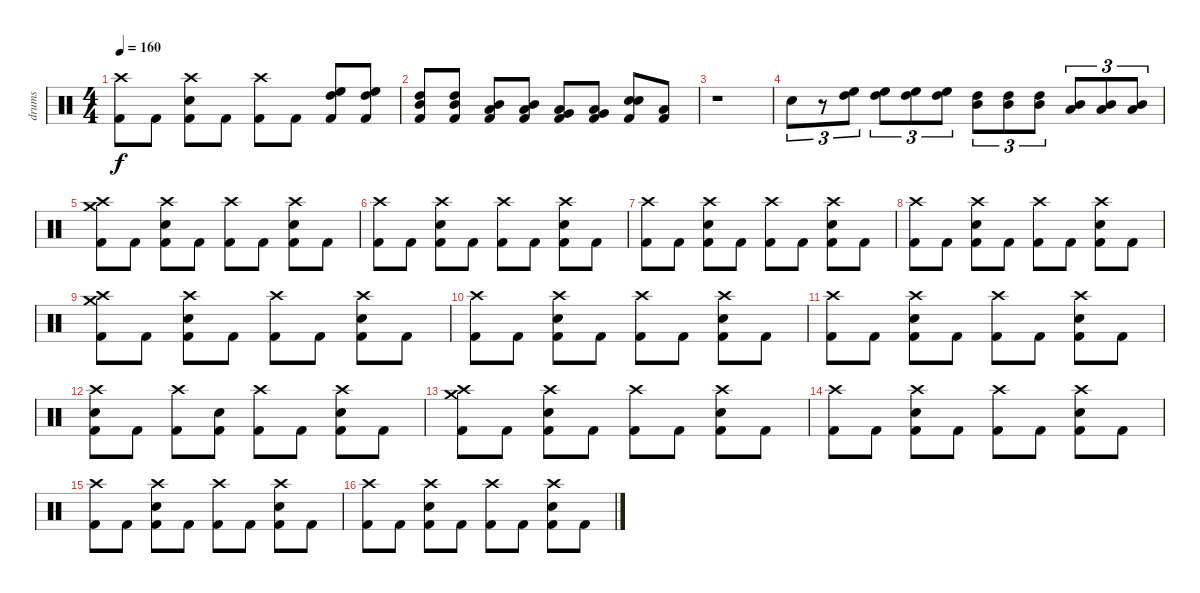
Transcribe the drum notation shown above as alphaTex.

\track ("drums" "drums") {instrument percussion}
\staff {score}
\articulation defaults
\ts (4 4)
\tempo 160
\clef neutral
\ks c
("Crash high (hit)" "Kick (hit) 2").8{dy f} "Kick (hit) 2".8 ("Crash high (hit)" "Electric Snare (hit)" "Kick (hit) 2").8 "Kick (hit) 2".8 ("Crash high (hit)" "Kick (hit) 2").8 "Kick (hit) 2".8 ("High Floor Tom (hit)" "High Tom (hit)" "Kick (hit) 2").8 ("High Floor Tom (hit)" "High Tom (hit)" "Kick (hit) 2").8 |
("High Tom (hit)" "Mid Tom (hit)" "Kick (hit) 2").8 ("High Tom (hit)" "Mid Tom (hit)" "Kick (hit) 2").8 ("Mid Tom (hit)" "Low Tom (hit)" "Kick (hit) 2").8 ("Mid Tom (hit)" "Low Tom (hit)" "Kick (hit) 2").8 ("Low Tom (hit)" "Very Low Tom (hit)" "Kick (hit) 2").8 ("Low Tom (hit)" "Very Low Tom (hit)" "Kick (hit) 2").8 ("Electric Snare (hit)" "Electric Snare (hit)" "Kick (hit) 2").8 ("Low Tom (hit)" "Kick (hit) 2").8 |
r.1 |
"Electric Snare (hit)".8{tu (3 2)} r.8{tu (3 2)} ("High Floor Tom (hit)" "High Tom (hit)").8{tu (3 2)} ("High Floor Tom (hit)" "High Tom (hit)").8{tu (3 2)} ("High Floor Tom (hit)" "High Tom (hit)").8{tu (3 2)} ("High Floor Tom (hit)" "High Tom (hit)").8{tu (3 2)} ("High Tom (hit)" "Mid Tom (hit)").8{tu (3 2)} ("High Tom (hit)" "Mid Tom (hit)").8{tu (3 2)} ("High Tom (hit)" "Mid Tom (hit)").8{tu (3 2)} ("Mid Tom (hit)" "Low Tom (hit)").8{tu (3 2)} ("Mid Tom (hit)" "Low Tom (hit)").8{tu (3 2)} ("Mid Tom (hit)" "Low Tom (hit)").8{tu (3 2)} |
("Crash high (hit)" "Crash medium (hit)" "Kick (hit) 2").8 "Kick (hit) 2".8 ("Crash high (hit)" "Electric Snare (hit)" "Kick (hit) 2").8 "Kick (hit) 2".8 ("Crash high (hit)" "Kick (hit) 2").8 "Kick (hit) 2".8 ("Crash high (hit)" "Electric Snare (hit)" "Kick (hit) 2").8 "Kick (hit) 2".8 |
("Crash high (hit)" "Kick (hit) 2").8 "Kick (hit) 2".8 ("Crash high (hit)" "Electric Snare (hit)" "Kick (hit) 2").8 "Kick (hit) 2".8 ("Crash high (hit)" "Kick (hit) 2").8 "Kick (hit) 2".8 ("Crash high (hit)" "Electric Snare (hit)" "Kick (hit) 2").8 "Kick (hit) 2".8 |
("Crash high (hit)" "Kick (hit) 2").8 "Kick (hit) 2".8 ("Crash high (hit)" "Electric Snare (hit)" "Kick (hit) 2").8 "Kick (hit) 2".8 ("Crash high (hit)" "Kick (hit) 2").8 "Kick (hit) 2".8 ("Crash high (hit)" "Electric Snare (hit)" "Kick (hit) 2").8 "Kick (hit) 2".8 |
("Crash high (hit)" "Kick (hit) 2").8 "Kick (hit) 2".8 ("Crash high (hit)" "Electric Snare (hit)" "Kick (hit) 2").8 "Kick (hit) 2".8 ("Crash high (hit)" "Kick (hit) 2").8 "Kick (hit) 2".8 ("Crash high (hit)" "Electric Snare (hit)" "Kick (hit) 2").8 "Kick (hit) 2".8 |
("Crash high (hit)" "Crash medium (hit)" "Kick (hit) 2").8 "Kick (hit) 2".8 ("Crash high (hit)" "Electric Snare (hit)" "Kick (hit) 2").8 "Kick (hit) 2".8 ("Crash high (hit)" "Kick (hit) 2").8 "Kick (hit) 2".8 ("Crash high (hit)" "Electric Snare (hit)" "Kick (hit) 2").8 "Kick (hit) 2".8 |
("Crash high (hit)" "Kick (hit) 2").8 "Kick (hit) 2".8 ("Crash high (hit)" "Electric Snare (hit)" "Kick (hit) 2").8 "Kick (hit) 2".8 ("Crash high (hit)" "Kick (hit) 2").8 "Kick (hit) 2".8 ("Crash high (hit)" "Electric Snare (hit)" "Kick (hit) 2").8 "Kick (hit) 2".8 |
("Crash high (hit)" "Kick (hit) 2").8 "Kick (hit) 2".8 ("Crash high (hit)" "Electric Snare (hit)" "Kick (hit) 2").8 "Kick (hit) 2".8 ("Crash high (hit)" "Kick (hit) 2").8 "Kick (hit) 2".8 ("Crash high (hit)" "Electric Snare (hit)" "Kick (hit) 2").8 "Kick (hit) 2".8 |
("Crash high (hit)" "Electric Snare (hit)" "Kick (hit) 2").8 "Kick (hit) 2".8 ("Crash high (hit)" "Kick (hit) 2").8 ("Electric Snare (hit)" "Kick (hit) 2").8 ("Crash high (hit)" "Kick (hit) 2").8 "Kick (hit) 2".8 ("Crash high (hit)" "Electric Snare (hit)" "Kick (hit) 2").8 "Kick (hit) 2".8 |
("Crash high (hit)" "Crash medium (hit)" "Kick (hit) 2").8 "Kick (hit) 2".8 ("Crash high (hit)" "Electric Snare (hit)" "Kick (hit) 2").8 "Kick (hit) 2".8 ("Crash high (hit)" "Kick (hit) 2").8 "Kick (hit) 2".8 ("Crash high (hit)" "Electric Snare (hit)" "Kick (hit) 2").8 "Kick (hit) 2".8 |
("Crash high (hit)" "Kick (hit) 2").8 "Kick (hit) 2".8 ("Crash high (hit)" "Electric Snare (hit)" "Kick (hit) 2").8 "Kick (hit) 2".8 ("Crash high (hit)" "Kick (hit) 2").8 "Kick (hit) 2".8 ("Crash high (hit)" "Electric Snare (hit)" "Kick (hit) 2").8 "Kick (hit) 2".8 |
("Crash high (hit)" "Kick (hit) 2").8 "Kick (hit) 2".8 ("Crash high (hit)" "Electric Snare (hit)" "Kick (hit) 2").8 "Kick (hit) 2".8 ("Crash high (hit)" "Kick (hit) 2").8 "Kick (hit) 2".8 ("Crash high (hit)" "Electric Snare (hit)" "Kick (hit) 2").8 "Kick (hit) 2".8 |
("Crash high (hit)" "Kick (hit) 2").8 "Kick (hit) 2".8 ("Crash high (hit)" "Electric Snare (hit)" "Kick (hit) 2").8 "Kick (hit) 2".8 ("Crash high (hit)" "Kick (hit) 2").8 "Kick (hit) 2".8 ("Crash high (hit)" "Electric Snare (hit)" "Kick (hit) 2").8 "Kick (hit) 2".8
